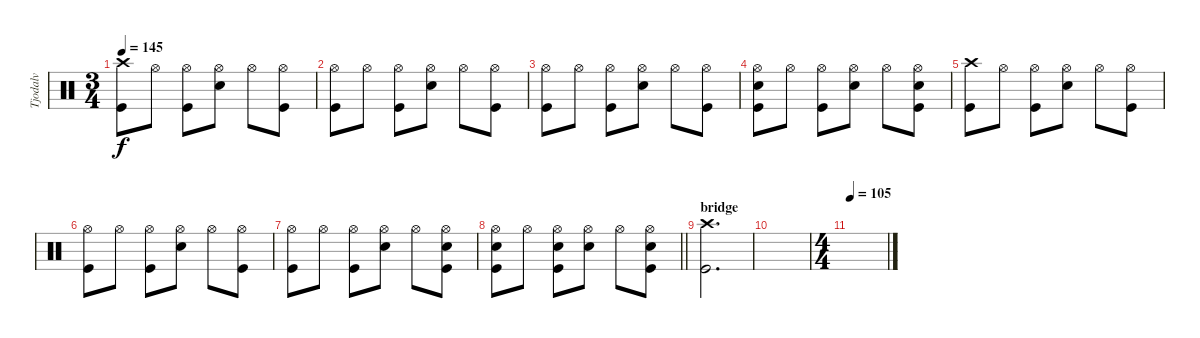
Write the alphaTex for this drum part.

\track ("Tjodalv" "Tjodalv") {instrument percussion}
\staff {score}
\articulation defaults
\ts (3 4)
\tempo 145
\clef neutral
\ks c
("Crash high (hit)" "Kick (hit)").8{dy f} "Hi-Hat (open)".8 ("Hi-Hat (open)" "Kick (hit)").8 ("Hi-Hat (open)" "Snare (hit) 2").8 "Hi-Hat (open)".8 ("Hi-Hat (open)" "Kick (hit)").8 |
("Hi-Hat (open)" "Kick (hit)").8 "Hi-Hat (open)".8 ("Hi-Hat (open)" "Kick (hit)").8 ("Hi-Hat (open)" "Snare (hit) 2").8 "Hi-Hat (open)".8 ("Hi-Hat (open)" "Kick (hit)").8 |
("Hi-Hat (open)" "Kick (hit)").8 "Hi-Hat (open)".8 ("Hi-Hat (open)" "Kick (hit)").8 ("Hi-Hat (open)" "Snare (hit) 2").8 "Hi-Hat (open)".8 ("Hi-Hat (open)" "Kick (hit)").8 |
("Hi-Hat (open)" "Snare (hit) 2" "Kick (hit)").8 "Hi-Hat (open)".8 ("Hi-Hat (open)" "Kick (hit)").8 ("Hi-Hat (open)" "Snare (hit) 2").8 "Hi-Hat (open)".8 ("Hi-Hat (open)" "Snare (hit) 2" "Kick (hit)").8 |
("Crash high (hit)" "Kick (hit)").8 "Hi-Hat (open)".8 ("Hi-Hat (open)" "Kick (hit)").8 ("Hi-Hat (open)" "Snare (hit) 2").8 "Hi-Hat (open)".8 ("Hi-Hat (open)" "Kick (hit)").8 |
("Hi-Hat (open)" "Kick (hit)").8 "Hi-Hat (open)".8 ("Hi-Hat (open)" "Kick (hit)").8 ("Hi-Hat (open)" "Snare (hit) 2").8 "Hi-Hat (open)".8 ("Hi-Hat (open)" "Kick (hit)").8 |
("Hi-Hat (open)" "Kick (hit)").8 "Hi-Hat (open)".8 ("Hi-Hat (open)" "Kick (hit)").8 ("Hi-Hat (open)" "Snare (hit) 2").8 "Hi-Hat (open)".8 ("Hi-Hat (open)" "Snare (hit) 2" "Kick (hit)").8 |
\barLineRight lightlight
("Hi-Hat (open)" "Snare (hit) 2" "Kick (hit)").8 "Hi-Hat (open)".8 ("Hi-Hat (open)" "Snare (hit) 2" "Kick (hit)").8 ("Hi-Hat (open)" "Snare (hit) 2").8 "Hi-Hat (open)".8 ("Hi-Hat (open)" "Snare (hit) 2" "Kick (hit)").8 |
\section ("" "bridge")
("Crash high (hit)" "Kick (hit)").2{d} |
|
\ts (4 4)
\tempo 105
